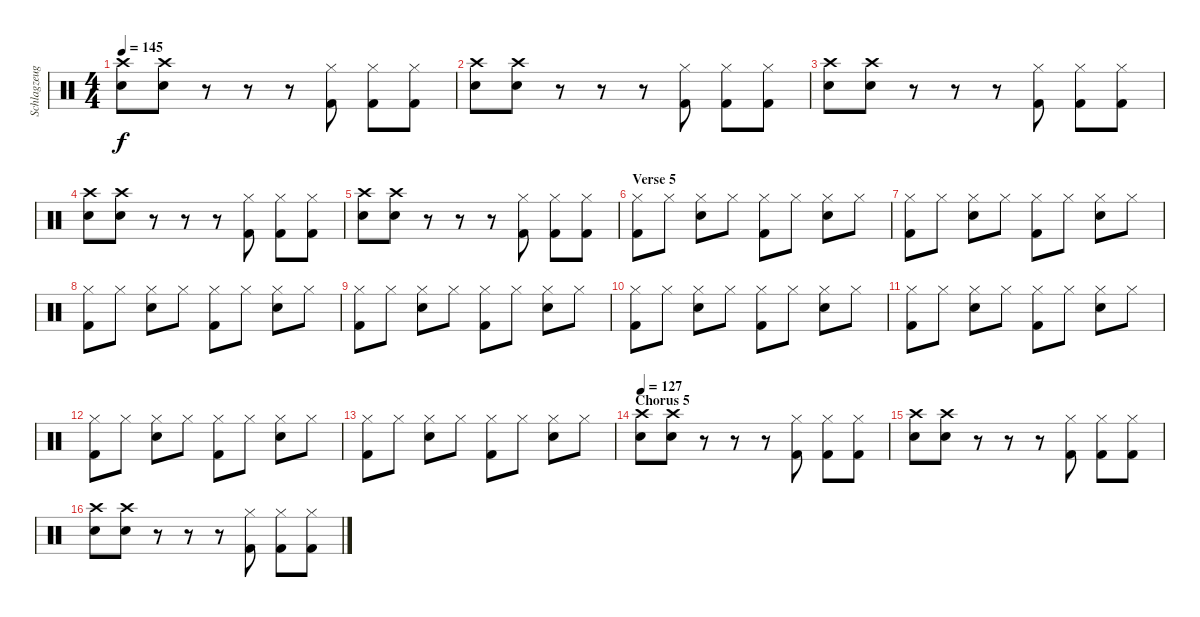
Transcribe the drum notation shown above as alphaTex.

\track ("Schlagzeug" "Schlagzeug") {instrument percussion}
\staff {score}
\articulation defaults
\ts (4 4)
\tempo 145
\clef neutral
\ks c
("Snare (hit) 2" "Crash high (hit)").8{dy f} ("Snare (hit) 2" "Crash high (hit)").8 r.8 r.8 r.8 ("Kick (hit) 2" "Hi-Hat (closed)").8 ("Kick (hit) 2" "Hi-Hat (closed)").8 ("Kick (hit) 2" "Hi-Hat (closed)").8 |
("Snare (hit) 2" "Crash high (hit)").8 ("Snare (hit) 2" "Crash high (hit)").8 r.8 r.8 r.8 ("Kick (hit) 2" "Hi-Hat (closed)").8 ("Kick (hit) 2" "Hi-Hat (closed)").8 ("Kick (hit) 2" "Hi-Hat (closed)").8 |
("Snare (hit) 2" "Crash high (hit)").8 ("Snare (hit) 2" "Crash high (hit)").8 r.8 r.8 r.8 ("Kick (hit) 2" "Hi-Hat (closed)").8 ("Kick (hit) 2" "Hi-Hat (closed)").8 ("Kick (hit) 2" "Hi-Hat (closed)").8 |
("Snare (hit) 2" "Crash high (hit)").8 ("Snare (hit) 2" "Crash high (hit)").8 r.8 r.8 r.8 ("Kick (hit) 2" "Hi-Hat (closed)").8 ("Kick (hit) 2" "Hi-Hat (closed)").8 ("Kick (hit) 2" "Hi-Hat (closed)").8 |
("Snare (hit) 2" "Crash high (hit)").8 ("Snare (hit) 2" "Crash high (hit)").8 r.8 r.8 r.8 ("Kick (hit) 2" "Hi-Hat (closed)").8 ("Kick (hit) 2" "Hi-Hat (closed)").8 ("Kick (hit) 2" "Hi-Hat (closed)").8 |
\section ("" "Verse 5")
("Kick (hit) 2" "Hi-Hat (closed)").8 "Hi-Hat (closed)".8 ("Snare (hit) 2" "Hi-Hat (closed)").8 "Hi-Hat (closed)".8 ("Kick (hit) 2" "Hi-Hat (closed)").8 "Hi-Hat (closed)".8 ("Snare (hit) 2" "Hi-Hat (closed)").8 "Hi-Hat (closed)".8 |
("Kick (hit) 2" "Hi-Hat (closed)").8 "Hi-Hat (closed)".8 ("Snare (hit) 2" "Hi-Hat (closed)").8 "Hi-Hat (closed)".8 ("Kick (hit) 2" "Hi-Hat (closed)").8 "Hi-Hat (closed)".8 ("Snare (hit) 2" "Hi-Hat (closed)").8 "Hi-Hat (closed)".8 |
("Kick (hit) 2" "Hi-Hat (closed)").8 "Hi-Hat (closed)".8 ("Snare (hit) 2" "Hi-Hat (closed)").8 "Hi-Hat (closed)".8 ("Kick (hit) 2" "Hi-Hat (closed)").8 "Hi-Hat (closed)".8 ("Snare (hit) 2" "Hi-Hat (closed)").8 "Hi-Hat (closed)".8 |
("Kick (hit) 2" "Hi-Hat (closed)").8 "Hi-Hat (closed)".8 ("Snare (hit) 2" "Hi-Hat (closed)").8 "Hi-Hat (closed)".8 ("Kick (hit) 2" "Hi-Hat (closed)").8 "Hi-Hat (closed)".8 ("Snare (hit) 2" "Hi-Hat (closed)").8 "Hi-Hat (closed)".8 |
("Kick (hit) 2" "Hi-Hat (closed)").8 "Hi-Hat (closed)".8 ("Snare (hit) 2" "Hi-Hat (closed)").8 "Hi-Hat (closed)".8 ("Kick (hit) 2" "Hi-Hat (closed)").8 "Hi-Hat (closed)".8 ("Snare (hit) 2" "Hi-Hat (closed)").8 "Hi-Hat (closed)".8 |
("Kick (hit) 2" "Hi-Hat (closed)").8 "Hi-Hat (closed)".8 ("Snare (hit) 2" "Hi-Hat (closed)").8 "Hi-Hat (closed)".8 ("Kick (hit) 2" "Hi-Hat (closed)").8 "Hi-Hat (closed)".8 ("Snare (hit) 2" "Hi-Hat (closed)").8 "Hi-Hat (closed)".8 |
("Kick (hit) 2" "Hi-Hat (closed)").8 "Hi-Hat (closed)".8 ("Snare (hit) 2" "Hi-Hat (closed)").8 "Hi-Hat (closed)".8 ("Kick (hit) 2" "Hi-Hat (closed)").8 "Hi-Hat (closed)".8 ("Snare (hit) 2" "Hi-Hat (closed)").8 "Hi-Hat (closed)".8 |
("Kick (hit) 2" "Hi-Hat (closed)").8 "Hi-Hat (closed)".8 ("Snare (hit) 2" "Hi-Hat (closed)").8 "Hi-Hat (closed)".8 ("Kick (hit) 2" "Hi-Hat (closed)").8 "Hi-Hat (closed)".8 ("Snare (hit) 2" "Hi-Hat (closed)").8 "Hi-Hat (closed)".8 |
\section ("" "Chorus 5")
\tempo 127
("Snare (hit) 2" "Crash high (hit)").8 ("Snare (hit) 2" "Crash high (hit)").8 r.8 r.8 r.8 ("Kick (hit) 2" "Hi-Hat (closed)").8 ("Kick (hit) 2" "Hi-Hat (closed)").8 ("Kick (hit) 2" "Hi-Hat (closed)").8 |
("Snare (hit) 2" "Crash high (hit)").8 ("Snare (hit) 2" "Crash high (hit)").8 r.8 r.8 r.8 ("Kick (hit) 2" "Hi-Hat (closed)").8 ("Kick (hit) 2" "Hi-Hat (closed)").8 ("Kick (hit) 2" "Hi-Hat (closed)").8 |
("Snare (hit) 2" "Crash high (hit)").8 ("Snare (hit) 2" "Crash high (hit)").8 r.8 r.8 r.8 ("Kick (hit) 2" "Hi-Hat (closed)").8 ("Kick (hit) 2" "Hi-Hat (closed)").8 ("Kick (hit) 2" "Hi-Hat (closed)").8
